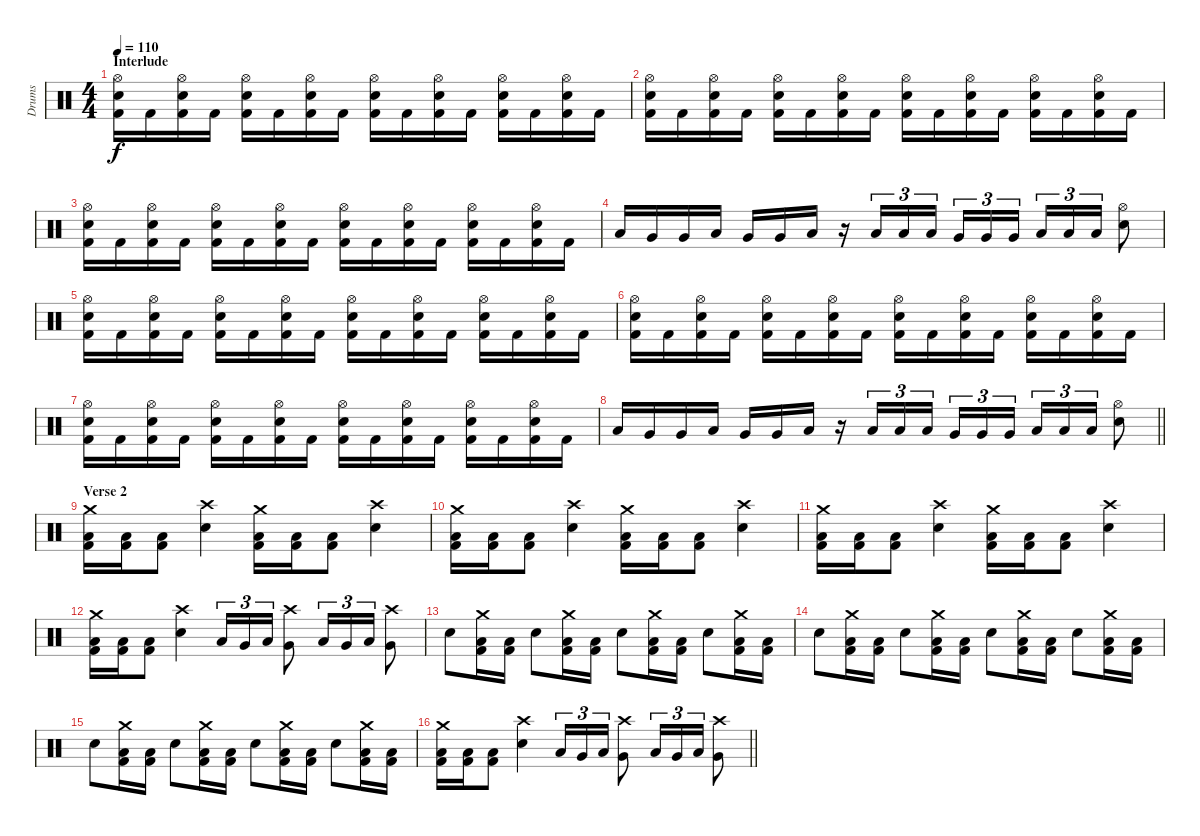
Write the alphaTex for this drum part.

\track ("Drums" "Drums") {instrument percussion}
\staff {score}
\articulation defaults
\ts (4 4)
\section ("" "Interlude")
\tempo 110
\clef neutral
\ks c
("Hi-Hat (open)" "Snare (hit) 2" "Kick (hit) 2").16{dy f} "Kick (hit) 2".16 ("Hi-Hat (open)" "Snare (hit) 2" "Kick (hit) 2").16 "Kick (hit) 2".16 ("Hi-Hat (open)" "Snare (hit) 2" "Kick (hit) 2").16 "Kick (hit) 2".16 ("Hi-Hat (open)" "Snare (hit) 2" "Kick (hit) 2").16 "Kick (hit) 2".16 ("Hi-Hat (open)" "Snare (hit) 2" "Kick (hit) 2").16 "Kick (hit) 2".16 ("Hi-Hat (open)" "Snare (hit) 2" "Kick (hit) 2").16 "Kick (hit) 2".16 ("Hi-Hat (open)" "Snare (hit) 2" "Kick (hit) 2").16 "Kick (hit) 2".16 ("Hi-Hat (open)" "Snare (hit) 2" "Kick (hit) 2").16 "Kick (hit) 2".16 |
("Hi-Hat (open)" "Snare (hit) 2" "Kick (hit) 2").16 "Kick (hit) 2".16 ("Hi-Hat (open)" "Snare (hit) 2" "Kick (hit) 2").16 "Kick (hit) 2".16 ("Hi-Hat (open)" "Snare (hit) 2" "Kick (hit) 2").16 "Kick (hit) 2".16 ("Hi-Hat (open)" "Snare (hit) 2" "Kick (hit) 2").16 "Kick (hit) 2".16 ("Hi-Hat (open)" "Snare (hit) 2" "Kick (hit) 2").16 "Kick (hit) 2".16 ("Hi-Hat (open)" "Snare (hit) 2" "Kick (hit) 2").16 "Kick (hit) 2".16 ("Hi-Hat (open)" "Snare (hit) 2" "Kick (hit) 2").16 "Kick (hit) 2".16 ("Hi-Hat (open)" "Snare (hit) 2" "Kick (hit) 2").16 "Kick (hit) 2".16 |
("Hi-Hat (open)" "Snare (hit) 2" "Kick (hit) 2").16 "Kick (hit) 2".16 ("Hi-Hat (open)" "Snare (hit) 2" "Kick (hit) 2").16 "Kick (hit) 2".16 ("Hi-Hat (open)" "Snare (hit) 2" "Kick (hit) 2").16 "Kick (hit) 2".16 ("Hi-Hat (open)" "Snare (hit) 2" "Kick (hit) 2").16 "Kick (hit) 2".16 ("Hi-Hat (open)" "Snare (hit) 2" "Kick (hit) 2").16 "Kick (hit) 2".16 ("Hi-Hat (open)" "Snare (hit) 2" "Kick (hit) 2").16 "Kick (hit) 2".16 ("Hi-Hat (open)" "Snare (hit) 2" "Kick (hit) 2").16 "Kick (hit) 2".16 ("Hi-Hat (open)" "Snare (hit) 2" "Kick (hit) 2").16 "Kick (hit) 2".16 |
"Low Tom (hit)".16 "Very Low Tom (hit)".16 "Very Low Tom (hit)".16 "Low Tom (hit)".16 "Very Low Tom (hit)".16 "Very Low Tom (hit)".16 "Low Tom (hit)".16 r.16 "Low Tom (hit)".16{tu (3 2)} "Low Tom (hit)".16{tu (3 2)} "Low Tom (hit)".16{tu (3 2) beam splitsecondary} "Very Low Tom (hit)".16{tu (3 2)} "Very Low Tom (hit)".16{tu (3 2)} "Very Low Tom (hit)".16{tu (3 2)} "Low Floor Tom (hit)".16{tu (3 2)} "Low Floor Tom (hit)".16{tu (3 2)} "Low Floor Tom (hit)".16{tu (3 2)} ("Hi-Hat (open)" "Snare (hit) 2").8 |
("Hi-Hat (open)" "Snare (hit) 2" "Kick (hit) 2").16 "Kick (hit) 2".16 ("Hi-Hat (open)" "Snare (hit) 2" "Kick (hit) 2").16 "Kick (hit) 2".16 ("Hi-Hat (open)" "Snare (hit) 2" "Kick (hit) 2").16 "Kick (hit) 2".16 ("Hi-Hat (open)" "Snare (hit) 2" "Kick (hit) 2").16 "Kick (hit) 2".16 ("Hi-Hat (open)" "Snare (hit) 2" "Kick (hit) 2").16 "Kick (hit) 2".16 ("Hi-Hat (open)" "Snare (hit) 2" "Kick (hit) 2").16 "Kick (hit) 2".16 ("Hi-Hat (open)" "Snare (hit) 2" "Kick (hit) 2").16 "Kick (hit) 2".16 ("Hi-Hat (open)" "Snare (hit) 2" "Kick (hit) 2").16 "Kick (hit) 2".16 |
("Hi-Hat (open)" "Snare (hit) 2" "Kick (hit) 2").16 "Kick (hit) 2".16 ("Hi-Hat (open)" "Snare (hit) 2" "Kick (hit) 2").16 "Kick (hit) 2".16 ("Hi-Hat (open)" "Snare (hit) 2" "Kick (hit) 2").16 "Kick (hit) 2".16 ("Hi-Hat (open)" "Snare (hit) 2" "Kick (hit) 2").16 "Kick (hit) 2".16 ("Hi-Hat (open)" "Snare (hit) 2" "Kick (hit) 2").16 "Kick (hit) 2".16 ("Hi-Hat (open)" "Snare (hit) 2" "Kick (hit) 2").16 "Kick (hit) 2".16 ("Hi-Hat (open)" "Snare (hit) 2" "Kick (hit) 2").16 "Kick (hit) 2".16 ("Hi-Hat (open)" "Snare (hit) 2" "Kick (hit) 2").16 "Kick (hit) 2".16 |
("Hi-Hat (open)" "Snare (hit) 2" "Kick (hit) 2").16 "Kick (hit) 2".16 ("Hi-Hat (open)" "Snare (hit) 2" "Kick (hit) 2").16 "Kick (hit) 2".16 ("Hi-Hat (open)" "Snare (hit) 2" "Kick (hit) 2").16 "Kick (hit) 2".16 ("Hi-Hat (open)" "Snare (hit) 2" "Kick (hit) 2").16 "Kick (hit) 2".16 ("Hi-Hat (open)" "Snare (hit) 2" "Kick (hit) 2").16 "Kick (hit) 2".16 ("Hi-Hat (open)" "Snare (hit) 2" "Kick (hit) 2").16 "Kick (hit) 2".16 ("Hi-Hat (open)" "Snare (hit) 2" "Kick (hit) 2").16 "Kick (hit) 2".16 ("Hi-Hat (open)" "Snare (hit) 2" "Kick (hit) 2").16 "Kick (hit) 2".16 |
\barLineRight lightlight "Low Tom (hit)".16 "Very Low Tom (hit)".16 "Very Low Tom (hit)".16 "Low Tom (hit)".16 "Very Low Tom (hit)".16 "Very Low Tom (hit)".16 "Low Tom (hit)".16
r.16 "Low Tom (hit)".16{tu (3 2)} "Low Tom (hit)".16{tu (3 2)} "Low Tom (hit)".16{tu (3 2) beam splitsecondary} "Very Low Tom (hit)".16{tu (3 2)} "Very Low Tom (hit)".16{tu (3 2)} "Very Low Tom (hit)".16{tu (3 2)} "Low Floor Tom (hit)".16{tu (3 2)} "Low Floor Tom (hit)".16{tu (3 2)} "Low Floor Tom (hit)".16{tu (3 2)} ("Hi-Hat (open)" "Snare (hit) 2").8 |
\section ("" "Verse 2")
("Crash medium (hit)" "Low Floor Tom (hit)" "Kick (hit) 2").16 ("Low Floor Tom (hit)" "Kick (hit) 2").16 ("Low Floor Tom (hit)" "Kick (hit) 2").8 ("Crash high (hit)" "Snare (hit) 2").4 ("Crash medium (hit)" "Low Floor Tom (hit)" "Kick (hit) 2").16 ("Low Floor Tom (hit)" "Kick (hit) 2").16 ("Low Floor Tom (hit)" "Kick (hit) 2").8 ("Crash high (hit)" "Snare (hit) 2").4 |
("Crash medium (hit)" "Low Floor Tom (hit)" "Kick (hit) 2").16 ("Low Floor Tom (hit)" "Kick (hit) 2").16 ("Low Floor Tom (hit)" "Kick (hit) 2").8 ("Crash high (hit)" "Snare (hit) 2").4 ("Crash medium (hit)" "Low Floor Tom (hit)" "Kick (hit) 2").16 ("Low Floor Tom (hit)" "Kick (hit) 2").16 ("Low Floor Tom (hit)" "Kick (hit) 2").8 ("Crash high (hit)" "Snare (hit) 2").4 |
("Crash medium (hit)" "Low Floor Tom (hit)" "Kick (hit) 2").16 ("Low Floor Tom (hit)" "Kick (hit) 2").16 ("Low Floor Tom (hit)" "Kick (hit) 2").8 ("Crash high (hit)" "Snare (hit) 2").4 ("Crash medium (hit)" "Low Floor Tom (hit)" "Kick (hit) 2").16 ("Low Floor Tom (hit)" "Kick (hit) 2").16 ("Low Floor Tom (hit)" "Kick (hit) 2").8 ("Crash high (hit)" "Snare (hit) 2").4 |
("Crash medium (hit)" "Low Floor Tom (hit)" "Kick (hit) 2").16 ("Low Floor Tom (hit)" "Kick (hit) 2").16 ("Low Floor Tom (hit)" "Kick (hit) 2").8 ("Crash high (hit)" "Snare (hit) 2").4 "Low Tom (hit)".16{tu (3 2)} "Very Low Tom (hit)".16{tu (3 2)} "Low Tom (hit)".16{tu (3 2)} ("Crash high (hit)" "Very Low Tom (hit)").8 "Low Tom (hit)".16{tu (3 2)} "Very Low Tom (hit)".16{tu (3 2)} "Low Tom (hit)".16{tu (3 2)} ("Crash high (hit)" "Very Low Tom (hit)").8 |
"Snare (hit) 2".8 ("Crash medium (hit)" "Low Floor Tom (hit)" "Kick (hit) 2").16 ("Low Floor Tom (hit)" "Kick (hit) 2").16 "Snare (hit) 2".8 ("Crash medium (hit)" "Low Floor Tom (hit)" "Kick (hit) 2").16 ("Low Floor Tom (hit)" "Kick (hit) 2").16 "Snare (hit) 2".8 ("Crash medium (hit)" "Low Floor Tom (hit)" "Kick (hit) 2").16 ("Low Floor Tom (hit)" "Kick (hit) 2").16 "Snare (hit) 2".8 ("Crash medium (hit)" "Low Floor Tom (hit)" "Kick (hit) 2").16 ("Low Floor Tom (hit)" "Kick (hit) 2").16 |
"Snare (hit) 2".8 ("Crash medium (hit)" "Low Floor Tom (hit)" "Kick (hit) 2").16 ("Low Floor Tom (hit)" "Kick (hit) 2").16 "Snare (hit) 2".8 ("Crash medium (hit)" "Low Floor Tom (hit)" "Kick (hit) 2").16 ("Low Floor Tom (hit)" "Kick (hit) 2").16 "Snare (hit) 2".8 ("Crash medium (hit)" "Low Floor Tom (hit)" "Kick (hit) 2").16 ("Low Floor Tom (hit)" "Kick (hit) 2").16 "Snare (hit) 2".8 ("Crash medium (hit)" "Low Floor Tom (hit)" "Kick (hit) 2").16 ("Low Floor Tom (hit)" "Kick (hit) 2").16 |
"Snare (hit) 2".8 ("Crash medium (hit)" "Low Floor Tom (hit)" "Kick (hit) 2").16 ("Low Floor Tom (hit)" "Kick (hit) 2").16 "Snare (hit) 2".8 ("Crash medium (hit)" "Low Floor Tom (hit)" "Kick (hit) 2").16 ("Low Floor Tom (hit)" "Kick (hit) 2").16 "Snare (hit) 2".8 ("Crash medium (hit)" "Low Floor Tom (hit)" "Kick (hit) 2").16 ("Low Floor Tom (hit)" "Kick (hit) 2").16 "Snare (hit) 2".8 ("Crash medium (hit)" "Low Floor Tom (hit)" "Kick (hit) 2").16 ("Low Floor Tom (hit)" "Kick (hit) 2").16 |
\barLineRight lightlight
("Crash medium (hit)" "Low Floor Tom (hit)" "Kick (hit) 2").16 ("Low Floor Tom (hit)" "Kick (hit) 2").16 ("Low Floor Tom (hit)" "Kick (hit) 2").8 ("Crash high (hit)" "Snare (hit) 2").4 "Low Tom (hit)".16{tu (3 2)} "Very Low Tom (hit)".16{tu (3 2)} "Low Tom (hit)".16{tu (3 2)} ("Crash high (hit)" "Very Low Tom (hit)").8 "Low Tom (hit)".16{tu (3 2)} "Very Low Tom (hit)".16{tu (3 2)} "Low Tom (hit)".16{tu (3 2)} ("Crash high (hit)" "Very Low Tom (hit)").8
